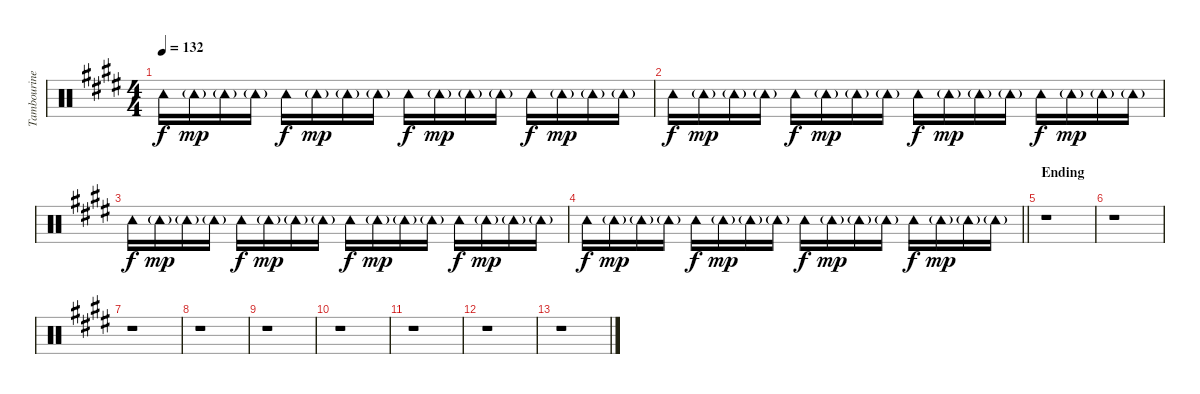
\track ("Tambourine" "Tambourine") {instrument percussion}
\staff {score}
\articulation defaults
\ts (4 4)
\tempo 132
\clef neutral
\ks e "Tambourine (hit)".16{dy f} "Tambourine (hit)"{g}.16{dy mp} "Tambourine (hit)"{g}.16 "Tambourine (hit)"{g}.16 "Tambourine (hit)".16{dy f} "Tambourine (hit)"{g}.16{dy mp} "Tambourine (hit)"{g}.16 "Tambourine (hit)"{g}.16 "Tambourine (hit)".16{dy f} "Tambourine (hit)"{g}.16{dy mp} "Tambourine (hit)"{g}.16 "Tambourine (hit)"{g}.16 "Tambourine (hit)".16{dy f} "Tambourine (hit)"{g}.16{dy mp} "Tambourine (hit)"{g}.16 "Tambourine (hit)"{g}.16
|
"Tambourine (hit)".16{dy f} "Tambourine (hit)"{g}.16{dy mp} "Tambourine (hit)"{g}.16 "Tambourine (hit)"{g}.16 "Tambourine (hit)".16{dy f} "Tambourine (hit)"{g}.16{dy mp} "Tambourine (hit)"{g}.16 "Tambourine (hit)"{g}.16 "Tambourine (hit)".16{dy f} "Tambourine (hit)"{g}.16{dy mp} "Tambourine (hit)"{g}.16 "Tambourine (hit)"{g}.16 "Tambourine (hit)".16{dy f} "Tambourine (hit)"{g}.16{dy mp} "Tambourine (hit)"{g}.16 "Tambourine (hit)"{g}.16 |
"Tambourine (hit)".16{dy f} "Tambourine (hit)"{g}.16{dy mp} "Tambourine (hit)"{g}.16 "Tambourine (hit)"{g}.16 "Tambourine (hit)".16{dy f} "Tambourine (hit)"{g}.16{dy mp} "Tambourine (hit)"{g}.16 "Tambourine (hit)"{g}.16 "Tambourine (hit)".16{dy f} "Tambourine (hit)"{g}.16{dy mp} "Tambourine (hit)"{g}.16 "Tambourine (hit)"{g}.16 "Tambourine (hit)".16{dy f} "Tambourine (hit)"{g}.16{dy mp} "Tambourine (hit)"{g}.16 "Tambourine (hit)"{g}.16 |
\barLineRight lightlight "Tambourine (hit)".16{dy f} "Tambourine (hit)"{g}.16{dy mp} "Tambourine (hit)"{g}.16 "Tambourine (hit)"{g}.16 "Tambourine (hit)".16{dy f} "Tambourine (hit)"{g}.16{dy mp} "Tambourine (hit)"{g}.16 "Tambourine (hit)"{g}.16 "Tambourine (hit)".16{dy f} "Tambourine (hit)"{g}.16{dy mp} "Tambourine (hit)"{g}.16 "Tambourine (hit)"{g}.16 "Tambourine (hit)".16{dy f} "Tambourine (hit)"{g}.16{dy mp} "Tambourine (hit)"{g}.16 "Tambourine (hit)"{g}.16
|
\section ("" "Ending")
r.1 |
r.1 |
r.1 |
r.1 |
r.1 |
r.1 |
r.1 |
r.1 |
r.1
